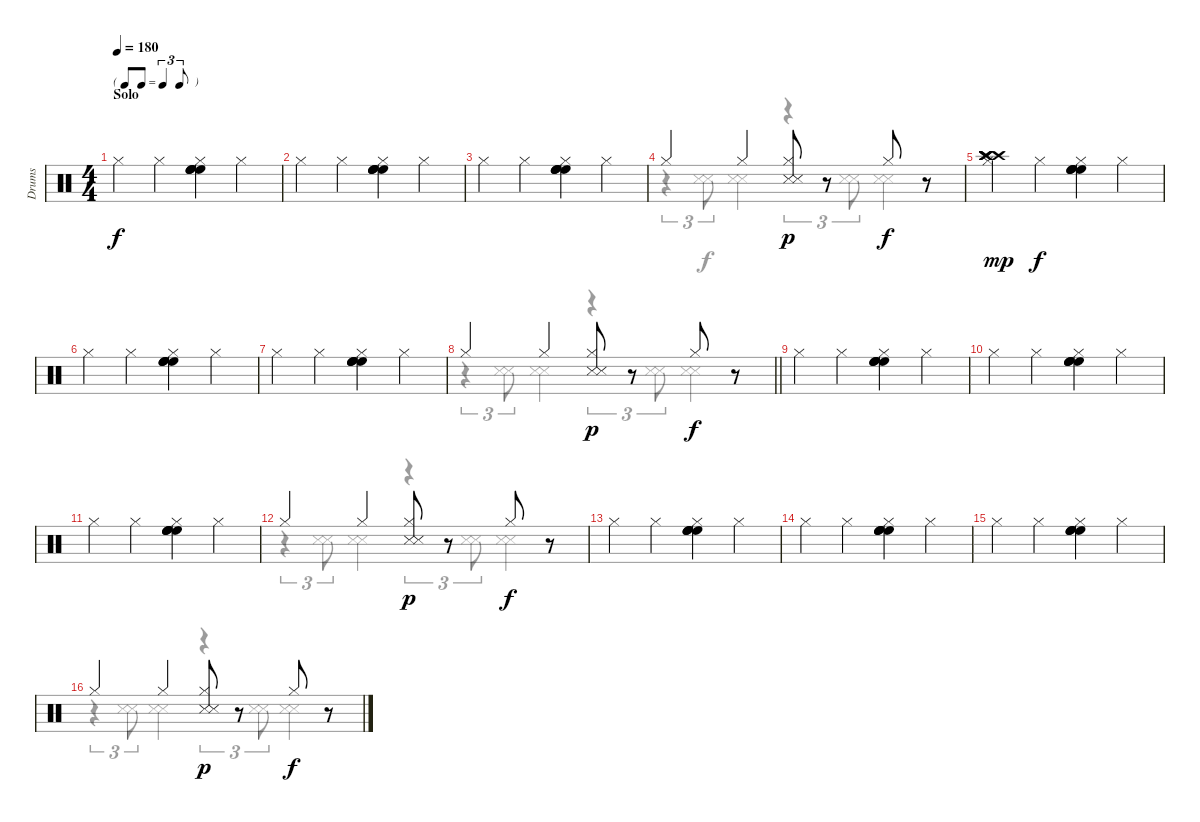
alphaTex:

\track ("Drums" "Drums") {instrument percussion}
\staff {score}
\articulation defaults
\voice
\ts (4 4)
\tf triplet8th
\section ("" "Solo")
\tempo 180
\clef neutral
\ks c "Hi-Hat (closed)".4{dy f volume 15} "Hi-Hat (closed)".4
("High Floor Tom (hit)" "High Floor Tom (hit)" "High Floor Tom (hit)" "High Floor Tom (hit)" "Hi-Hat (closed)").4 "Hi-Hat (closed)".4 |
"Hi-Hat (closed)".4 "Hi-Hat (closed)".4 ("High Floor Tom (hit)" "High Floor Tom (hit)" "High Floor Tom (hit)" "High Floor Tom (hit)" "Hi-Hat (closed)").4 "Hi-Hat (closed)".4 |
"Hi-Hat (closed)".4 "Hi-Hat (closed)".4 ("High Floor Tom (hit)" "High Floor Tom (hit)" "High Floor Tom (hit)" "High Floor Tom (hit)" "Hi-Hat (closed)").4 "Hi-Hat (closed)".4 |
"Hi-Hat (closed)".4 "Hi-Hat (closed)".4 ("Snare (side stick) 3" "Snare (side stick) 3" "Hi-Hat (closed)").8{dy p} r.8 "Hi-Hat (closed)".8{dy f} r.8 |
("Crash high (hit)" "Crash high (hit)" "Crash high (hit)" "Crash high (hit)" "Hi-Hat (closed)").4{dy mp} "Hi-Hat (closed)".4{dy f} ("High Floor Tom (hit)" "High Floor Tom (hit)" "High Floor Tom (hit)" "High Floor Tom (hit)" "Hi-Hat (closed)").4 "Hi-Hat (closed)".4 |
"Hi-Hat (closed)".4 "Hi-Hat (closed)".4 ("High Floor Tom (hit)" "High Floor Tom (hit)" "High Floor Tom (hit)" "High Floor Tom (hit)" "Hi-Hat (closed)").4 "Hi-Hat (closed)".4 |
"Hi-Hat (closed)".4 "Hi-Hat (closed)".4 ("High Floor Tom (hit)" "High Floor Tom (hit)" "High Floor Tom (hit)" "High Floor Tom (hit)" "Hi-Hat (closed)").4 "Hi-Hat (closed)".4 |
\barLineRight lightlight "Hi-Hat (closed)".4 "Hi-Hat (closed)".4
("Snare (side stick) 3" "Snare (side stick) 3" "Hi-Hat (closed)").8{dy p} r.8 "Hi-Hat (closed)".8{dy f} r.8 |
"Hi-Hat (closed)".4 "Hi-Hat (closed)".4 ("High Floor Tom (hit)" "High Floor Tom (hit)" "High Floor Tom (hit)" "High Floor Tom (hit)" "Hi-Hat (closed)").4 "Hi-Hat (closed)".4 |
"Hi-Hat (closed)".4 "Hi-Hat (closed)".4 ("High Floor Tom (hit)" "High Floor Tom (hit)" "High Floor Tom (hit)" "High Floor Tom (hit)" "Hi-Hat (closed)").4 "Hi-Hat (closed)".4 |
"Hi-Hat (closed)".4 "Hi-Hat (closed)".4 ("High Floor Tom (hit)" "High Floor Tom (hit)" "High Floor Tom (hit)" "High Floor Tom (hit)" "Hi-Hat (closed)").4 "Hi-Hat (closed)".4 |
"Hi-Hat (closed)".4 "Hi-Hat (closed)".4 ("Snare (side stick) 3" "Snare (side stick) 3" "Hi-Hat (closed)").8{dy p} r.8 "Hi-Hat (closed)".8{dy f} r.8 |
"Hi-Hat (closed)".4 "Hi-Hat (closed)".4 ("High Floor Tom (hit)" "High Floor Tom (hit)" "High Floor Tom (hit)" "High Floor Tom (hit)" "Hi-Hat (closed)").4 "Hi-Hat (closed)".4 |
"Hi-Hat (closed)".4 "Hi-Hat (closed)".4 ("High Floor Tom (hit)" "High Floor Tom (hit)" "High Floor Tom (hit)" "High Floor Tom (hit)" "Hi-Hat (closed)").4 "Hi-Hat (closed)".4 |
"Hi-Hat (closed)".4 "Hi-Hat (closed)".4 ("High Floor Tom (hit)" "High Floor Tom (hit)" "High Floor Tom (hit)" "High Floor Tom (hit)" "Hi-Hat (closed)").4 "Hi-Hat (closed)".4 |
"Hi-Hat (closed)".4 "Hi-Hat (closed)".4 ("Snare (side stick) 3" "Snare (side stick) 3" "Hi-Hat (closed)").8{dy p} r.8 "Hi-Hat (closed)".8{dy f} r.8
\voice
\clef neutral
\ottava regular
\simile none
\ks c
|
|
|
r.4{tu (3 2)} ("Snare (side stick) 3" "Snare (side stick) 3").8{tu (3 2)} ("Snare (side stick) 3" "Snare (side stick) 3").4 r.4{tu (3 2)} ("Snare (side stick) 3" "Snare (side stick) 3").8{tu (3 2)} ("Snare (side stick) 3" "Snare (side stick) 3").4 |
|
|
|
\barLineRight lightlight
r.4{tu (3 2)} ("Snare (side stick) 3" "Snare (side stick) 3").8{tu (3 2)} ("Snare (side stick) 3" "Snare (side stick) 3").4 r.4{tu (3 2)} ("Snare (side stick) 3" "Snare (side stick) 3").8{tu (3 2)} ("Snare (side stick) 3" "Snare (side stick) 3").4 |
|
|
|
r.4{tu (3 2)} ("Snare (side stick) 3" "Snare (side stick) 3").8{tu (3 2)} ("Snare (side stick) 3" "Snare (side stick) 3").4 r.4{tu (3 2)} ("Snare (side stick) 3" "Snare (side stick) 3").8{tu (3 2)} ("Snare (side stick) 3" "Snare (side stick) 3").4 |
|
|
|
r.4{tu (3 2)} ("Snare (side stick) 3" "Snare (side stick) 3").8{tu (3 2)} ("Snare (side stick) 3" "Snare (side stick) 3").4 r.4{tu (3 2)} ("Snare (side stick) 3" "Snare (side stick) 3").8{tu (3 2)} ("Snare (side stick) 3" "Snare (side stick) 3").4
